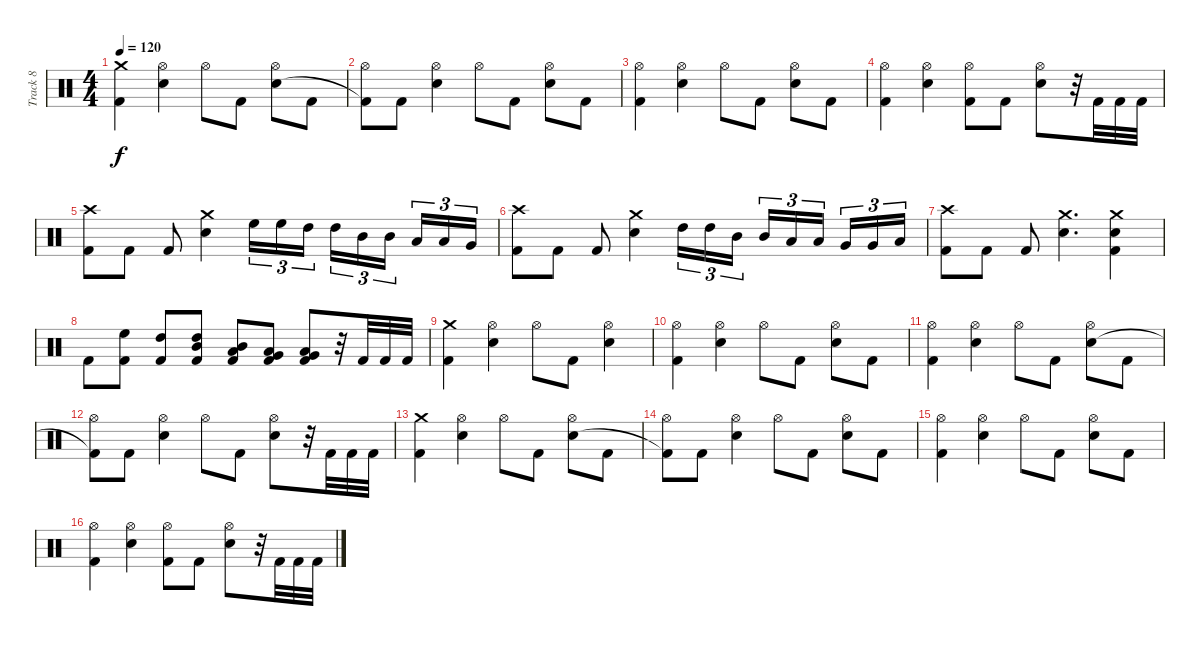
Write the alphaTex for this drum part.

\track ("Track 8" "Track 8") {instrument percussion}
\staff {score}
\articulation defaults
\ts (4 4)
\tempo 120
\clef neutral
\ks c
("Crash medium (hit)" "Kick (hit) 2").4{dy f} ("Hi-Hat (open)" "Electric Snare (hit)").4 "Hi-Hat (open)".8 "Kick (hit) 2".8 ("Hi-Hat (open)" "Electric Snare (hit)").8 "Kick (hit) 2".8 |
("Hi-Hat (open)" "Kick (hit) 2"{t}).8 "Kick (hit) 2".8 ("Hi-Hat (open)" "Electric Snare (hit)").4 "Hi-Hat (open)".8 "Kick (hit) 2".8 ("Hi-Hat (open)" "Electric Snare (hit)").8 "Kick (hit) 2".8 |
("Hi-Hat (open)" "Kick (hit) 2").4 ("Hi-Hat (open)" "Electric Snare (hit)").4 "Hi-Hat (open)".8 "Kick (hit) 2".8 ("Hi-Hat (open)" "Electric Snare (hit)").8 "Kick (hit) 2".8 |
("Hi-Hat (open)" "Kick (hit) 2").4 ("Hi-Hat (open)" "Electric Snare (hit)").4 ("Hi-Hat (open)" "Kick (hit) 2").8 "Kick (hit) 2".8 ("Hi-Hat (open)" "Electric Snare (hit)").8 r.32 "Kick (hit) 2".32 "Kick (hit) 2".32 "Kick (hit) 2".32 |
("Crash high (hit)" "Kick (hit) 2").8 "Kick (hit) 2".8 "Kick (hit) 2".8 ("Crash medium (hit)" "Electric Snare (hit)").4 "High Floor Tom (hit)".16{tu (3 2)} "High Floor Tom (hit)".16{tu (3 2)} "High Tom (hit)".16{tu (3 2)} "High Tom (hit)".16{tu (3 2)} "Mid Tom (hit)".16{tu (3 2)} "Mid Tom (hit)".16{tu (3 2) beam splitsecondary} "Low Tom (hit)".16{tu (3 2)} "Low Tom (hit)".16{tu (3 2)} "Very Low Tom (hit)".16{tu (3 2)} |
("Crash high (hit)" "Kick (hit) 2").8 "Kick (hit) 2".8 "Kick (hit) 2".8 ("Crash medium (hit)" "Electric Snare (hit)").4 "High Tom (hit)".16{tu (3 2)} "High Tom (hit)".16{tu (3 2)} "Mid Tom (hit)".16{tu (3 2)} "Mid Tom (hit)".16{tu (3 2)} "Low Tom (hit)".16{tu (3 2)} "Low Tom (hit)".16{tu (3 2) beam splitsecondary} "Very Low Tom (hit)".16{tu (3 2)} "Very Low Tom (hit)".16{tu (3 2)} "Low Floor Tom (hit)".16{tu (3 2)} |
("Crash high (hit)" "Kick (hit) 2").8 "Kick (hit) 2".8 "Kick (hit) 2".8 ("Crash medium (hit)" "Electric Snare (hit)").4{d} ("Crash medium (hit)" "Electric Snare (hit)" "Kick (hit) 2").4 |
"Kick (hit) 2".8 ("High Floor Tom (hit)" "Kick (hit) 2").8 ("High Tom (hit)" "Kick (hit) 2").8 ("High Tom (hit)" "Mid Tom (hit)" "Kick (hit) 2").8 ("Mid Tom (hit)" "Low Tom (hit)" "Kick (hit) 2").8 ("Low Tom (hit)" "Very Low Tom (hit)" "Kick (hit) 2").8 ("Very Low Tom (hit)" "Low Floor Tom (hit)" "Kick (hit) 2").8 r.32 "Kick (hit) 2".32 "Kick (hit) 2".32 "Kick (hit) 2".32 |
("Crash medium (hit)" "Kick (hit) 2").4 ("Hi-Hat (open)" "Electric Snare (hit)").4 "Hi-Hat (open)".8 "Kick (hit) 2".8 ("Hi-Hat (open)" "Electric Snare (hit)").4 |
("Hi-Hat (open)" "Kick (hit) 2").4 ("Hi-Hat (open)" "Electric Snare (hit)").4 "Hi-Hat (open)".8 "Kick (hit) 2".8 ("Hi-Hat (open)" "Electric Snare (hit)").8 "Kick (hit) 2".8 |
("Hi-Hat (open)" "Kick (hit) 2").4 ("Hi-Hat (open)" "Electric Snare (hit)").4 "Hi-Hat (open)".8 "Kick (hit) 2".8 ("Hi-Hat (open)" "Electric Snare (hit)").8 "Kick (hit) 2".8 |
("Hi-Hat (open)" "Kick (hit) 2"{t}).8 "Kick (hit) 2".8 ("Hi-Hat (open)" "Electric Snare (hit)").4 "Hi-Hat (open)".8 "Kick (hit) 2".8 ("Hi-Hat (open)" "Electric Snare (hit)").8 r.32 "Kick (hit) 2".32 "Kick (hit) 2".32 "Kick (hit) 2".32 |
("Crash medium (hit)" "Kick (hit) 2").4 ("Hi-Hat (open)" "Electric Snare (hit)").4 "Hi-Hat (open)".8 "Kick (hit) 2".8 ("Hi-Hat (open)" "Electric Snare (hit)").8 "Kick (hit) 2".8 |
("Hi-Hat (open)" "Kick (hit) 2"{t}).8 "Kick (hit) 2".8 ("Hi-Hat (open)" "Electric Snare (hit)").4 "Hi-Hat (open)".8 "Kick (hit) 2".8 ("Hi-Hat (open)" "Electric Snare (hit)").8 "Kick (hit) 2".8 |
("Hi-Hat (open)" "Kick (hit) 2").4 ("Hi-Hat (open)" "Electric Snare (hit)").4 "Hi-Hat (open)".8 "Kick (hit) 2".8 ("Hi-Hat (open)" "Electric Snare (hit)").8 "Kick (hit) 2".8 |
("Hi-Hat (open)" "Kick (hit) 2").4 ("Hi-Hat (open)" "Electric Snare (hit)").4 ("Hi-Hat (open)" "Kick (hit) 2").8 "Kick (hit) 2".8 ("Hi-Hat (open)" "Electric Snare (hit)").8 r.32 "Kick (hit) 2".32 "Kick (hit) 2".32 "Kick (hit) 2".32
